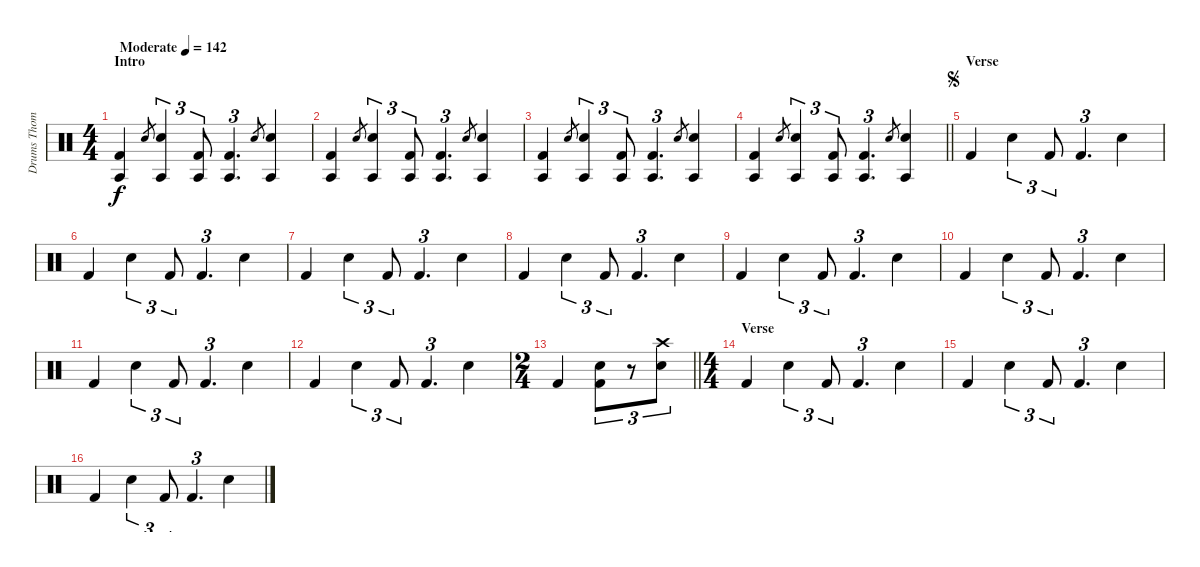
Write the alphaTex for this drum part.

\track ("Drums Thomas Goetz" "Drums Thom") {instrument percussion}
\staff {score}
\articulation defaults
\ts (4 4)
\section ("" "Intro")
\tempo (142 "Moderate")
\clef neutral
\ks c
("Agogo tow (hit)" "Kick (hit) 2").4{dy f} "Snare (hit) 2".8{gr} ("Agogo tow (hit)" "Snare (hit) 2").4{tu (3 2)} ("Agogo tow (hit)" "Kick (hit) 2").8{tu (3 2)} ("Agogo tow (hit)" "Kick (hit) 2").4{d tu (3 2)} "Snare (hit) 2".8{gr} ("Agogo tow (hit)" "Snare (hit) 2").4 |
("Agogo tow (hit)" "Kick (hit) 2").4 "Snare (hit) 2".8{gr} ("Agogo tow (hit)" "Snare (hit) 2").4{tu (3 2)} ("Agogo tow (hit)" "Kick (hit) 2").8{tu (3 2)} ("Agogo tow (hit)" "Kick (hit) 2").4{d tu (3 2)} "Snare (hit) 2".8{gr} ("Agogo tow (hit)" "Snare (hit) 2").4 |
("Agogo tow (hit)" "Kick (hit) 2").4 "Snare (hit) 2".8{gr} ("Agogo tow (hit)" "Snare (hit) 2").4{tu (3 2)} ("Agogo tow (hit)" "Kick (hit) 2").8{tu (3 2)} ("Agogo tow (hit)" "Kick (hit) 2").4{d tu (3 2)} "Snare (hit) 2".8{gr} ("Agogo tow (hit)" "Snare (hit) 2").4 |
\barLineRight lightlight
("Agogo tow (hit)" "Kick (hit) 2").4 "Snare (hit) 2".8{gr} ("Agogo tow (hit)" "Snare (hit) 2").4{tu (3 2)} ("Agogo tow (hit)" "Kick (hit) 2").8{tu (3 2)} ("Agogo tow (hit)" "Kick (hit) 2").4{d tu (3 2)} "Snare (hit) 2".8{gr} ("Agogo tow (hit)" "Snare (hit) 2").4 |
\section ("" "Verse")
\jump segno "Kick (hit) 2".4 "Snare (hit) 2".4{tu (3 2)} "Kick (hit) 2".8{tu (3 2)} "Kick (hit) 2".4{d tu (3 2)} "Snare (hit) 2".4
|
"Kick (hit) 2".4 "Snare (hit) 2".4{tu (3 2)} "Kick (hit) 2".8{tu (3 2)} "Kick (hit) 2".4{d tu (3 2)} "Snare (hit) 2".4 |
"Kick (hit) 2".4 "Snare (hit) 2".4{tu (3 2)} "Kick (hit) 2".8{tu (3 2)} "Kick (hit) 2".4{d tu (3 2)} "Snare (hit) 2".4 |
"Kick (hit) 2".4 "Snare (hit) 2".4{tu (3 2)} "Kick (hit) 2".8{tu (3 2)} "Kick (hit) 2".4{d tu (3 2)} "Snare (hit) 2".4 |
"Kick (hit) 2".4 "Snare (hit) 2".4{tu (3 2)} "Kick (hit) 2".8{tu (3 2)} "Kick (hit) 2".4{d tu (3 2)} "Snare (hit) 2".4 |
"Kick (hit) 2".4 "Snare (hit) 2".4{tu (3 2)} "Kick (hit) 2".8{tu (3 2)} "Kick (hit) 2".4{d tu (3 2)} "Snare (hit) 2".4 |
"Kick (hit) 2".4 "Snare (hit) 2".4{tu (3 2)} "Kick (hit) 2".8{tu (3 2)} "Kick (hit) 2".4{d tu (3 2)} "Snare (hit) 2".4 |
"Kick (hit) 2".4 "Snare (hit) 2".4{tu (3 2)} "Kick (hit) 2".8{tu (3 2)} "Kick (hit) 2".4{d tu (3 2)} "Snare (hit) 2".4 |
\ts (2 4)
\barLineRight lightlight "Kick (hit) 2".4
("Snare (hit) 2" "Kick (hit) 2").8{tu (3 2)} r.8{tu (3 2)} ("Crash high (hit)" "Snare (hit) 2").8{tu (3 2)} |
\ts (4 4)
\section ("" "Verse")
"Kick (hit) 2".4 "Snare (hit) 2".4{tu (3 2)} "Kick (hit) 2".8{tu (3 2)} "Kick (hit) 2".4{d tu (3 2)} "Snare (hit) 2".4 |
"Kick (hit) 2".4 "Snare (hit) 2".4{tu (3 2)} "Kick (hit) 2".8{tu (3 2)} "Kick (hit) 2".4{d tu (3 2)} "Snare (hit) 2".4 |
"Kick (hit) 2".4 "Snare (hit) 2".4{tu (3 2)} "Kick (hit) 2".8{tu (3 2)} "Kick (hit) 2".4{d tu (3 2)} "Snare (hit) 2".4
